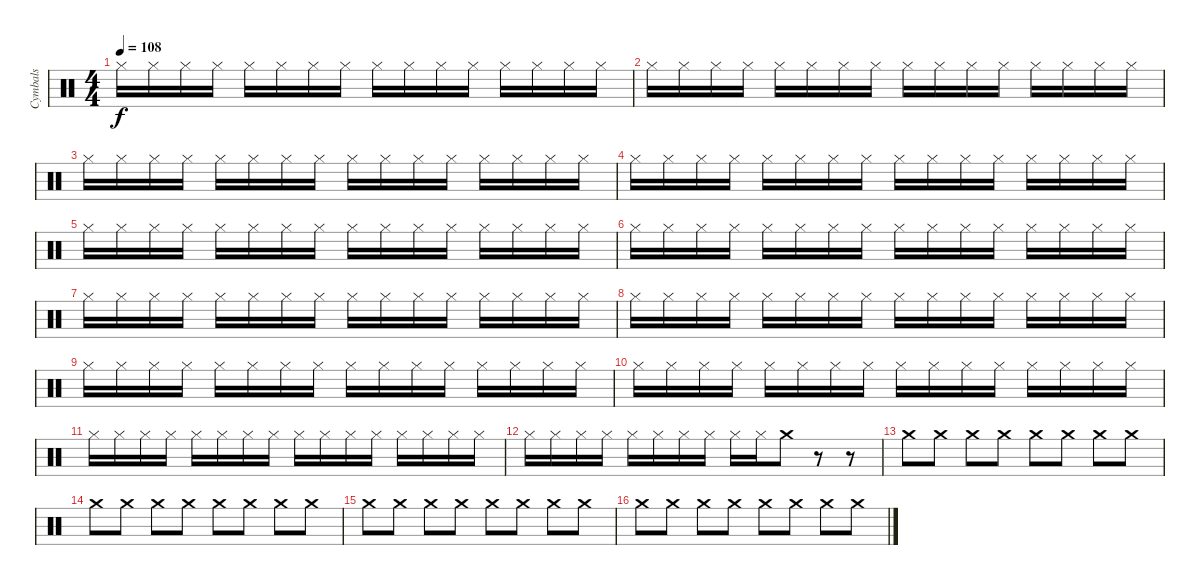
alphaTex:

\track ("Cymbals" "Cymbals") {instrument percussion}
\staff {score}
\articulation defaults
\ts (4 4)
\tempo 108
\clef neutral
\ks c "Hi-Hat (closed)".16{dy f} "Hi-Hat (closed)".16 "Hi-Hat (closed)".16 "Hi-Hat (closed)".16 "Hi-Hat (closed)".16 "Hi-Hat (closed)".16 "Hi-Hat (closed)".16 "Hi-Hat (closed)".16 "Hi-Hat (closed)".16 "Hi-Hat (closed)".16 "Hi-Hat (closed)".16 "Hi-Hat (closed)".16 "Hi-Hat (closed)".16 "Hi-Hat (closed)".16 "Hi-Hat (closed)".16 "Hi-Hat (closed)".16
|
"Hi-Hat (closed)".16 "Hi-Hat (closed)".16 "Hi-Hat (closed)".16 "Hi-Hat (closed)".16 "Hi-Hat (closed)".16 "Hi-Hat (closed)".16 "Hi-Hat (closed)".16 "Hi-Hat (closed)".16 "Hi-Hat (closed)".16 "Hi-Hat (closed)".16 "Hi-Hat (closed)".16 "Hi-Hat (closed)".16 "Hi-Hat (closed)".16 "Hi-Hat (closed)".16 "Hi-Hat (closed)".16 "Hi-Hat (closed)".16 |
"Hi-Hat (closed)".16 "Hi-Hat (closed)".16 "Hi-Hat (closed)".16 "Hi-Hat (closed)".16 "Hi-Hat (closed)".16 "Hi-Hat (closed)".16 "Hi-Hat (closed)".16 "Hi-Hat (closed)".16 "Hi-Hat (closed)".16 "Hi-Hat (closed)".16 "Hi-Hat (closed)".16 "Hi-Hat (closed)".16 "Hi-Hat (closed)".16 "Hi-Hat (closed)".16 "Hi-Hat (closed)".16 "Hi-Hat (closed)".16 |
"Hi-Hat (closed)".16 "Hi-Hat (closed)".16 "Hi-Hat (closed)".16 "Hi-Hat (closed)".16 "Hi-Hat (closed)".16 "Hi-Hat (closed)".16 "Hi-Hat (closed)".16 "Hi-Hat (closed)".16 "Hi-Hat (closed)".16 "Hi-Hat (closed)".16 "Hi-Hat (closed)".16 "Hi-Hat (closed)".16 "Hi-Hat (closed)".16 "Hi-Hat (closed)".16 "Hi-Hat (closed)".16 "Hi-Hat (closed)".16 |
"Hi-Hat (closed)".16 "Hi-Hat (closed)".16 "Hi-Hat (closed)".16 "Hi-Hat (closed)".16 "Hi-Hat (closed)".16 "Hi-Hat (closed)".16 "Hi-Hat (closed)".16 "Hi-Hat (closed)".16 "Hi-Hat (closed)".16 "Hi-Hat (closed)".16 "Hi-Hat (closed)".16 "Hi-Hat (closed)".16 "Hi-Hat (closed)".16 "Hi-Hat (closed)".16 "Hi-Hat (closed)".16 "Hi-Hat (closed)".16 |
"Hi-Hat (closed)".16 "Hi-Hat (closed)".16 "Hi-Hat (closed)".16 "Hi-Hat (closed)".16 "Hi-Hat (closed)".16 "Hi-Hat (closed)".16 "Hi-Hat (closed)".16 "Hi-Hat (closed)".16 "Hi-Hat (closed)".16 "Hi-Hat (closed)".16 "Hi-Hat (closed)".16 "Hi-Hat (closed)".16 "Hi-Hat (closed)".16 "Hi-Hat (closed)".16 "Hi-Hat (closed)".16 "Hi-Hat (closed)".16 |
"Hi-Hat (closed)".16 "Hi-Hat (closed)".16 "Hi-Hat (closed)".16 "Hi-Hat (closed)".16 "Hi-Hat (closed)".16 "Hi-Hat (closed)".16 "Hi-Hat (closed)".16 "Hi-Hat (closed)".16 "Hi-Hat (closed)".16 "Hi-Hat (closed)".16 "Hi-Hat (closed)".16 "Hi-Hat (closed)".16 "Hi-Hat (closed)".16 "Hi-Hat (closed)".16 "Hi-Hat (closed)".16 "Hi-Hat (closed)".16 |
"Hi-Hat (closed)".16 "Hi-Hat (closed)".16 "Hi-Hat (closed)".16 "Hi-Hat (closed)".16 "Hi-Hat (closed)".16 "Hi-Hat (closed)".16 "Hi-Hat (closed)".16 "Hi-Hat (closed)".16 "Hi-Hat (closed)".16 "Hi-Hat (closed)".16 "Hi-Hat (closed)".16 "Hi-Hat (closed)".16 "Hi-Hat (closed)".16 "Hi-Hat (closed)".16 "Hi-Hat (closed)".16 "Hi-Hat (closed)".16 |
"Hi-Hat (closed)".16 "Hi-Hat (closed)".16 "Hi-Hat (closed)".16 "Hi-Hat (closed)".16 "Hi-Hat (closed)".16 "Hi-Hat (closed)".16 "Hi-Hat (closed)".16 "Hi-Hat (closed)".16 "Hi-Hat (closed)".16 "Hi-Hat (closed)".16 "Hi-Hat (closed)".16 "Hi-Hat (closed)".16 "Hi-Hat (closed)".16 "Hi-Hat (closed)".16 "Hi-Hat (closed)".16 "Hi-Hat (closed)".16 |
"Hi-Hat (closed)".16 "Hi-Hat (closed)".16 "Hi-Hat (closed)".16 "Hi-Hat (closed)".16 "Hi-Hat (closed)".16 "Hi-Hat (closed)".16 "Hi-Hat (closed)".16 "Hi-Hat (closed)".16 "Hi-Hat (closed)".16 "Hi-Hat (closed)".16 "Hi-Hat (closed)".16 "Hi-Hat (closed)".16 "Hi-Hat (closed)".16 "Hi-Hat (closed)".16 "Hi-Hat (closed)".16 "Hi-Hat (closed)".16 |
"Hi-Hat (closed)".16 "Hi-Hat (closed)".16 "Hi-Hat (closed)".16 "Hi-Hat (closed)".16 "Hi-Hat (closed)".16 "Hi-Hat (closed)".16 "Hi-Hat (closed)".16 "Hi-Hat (closed)".16 "Hi-Hat (closed)".16 "Hi-Hat (closed)".16 "Hi-Hat (closed)".16 "Hi-Hat (closed)".16 "Hi-Hat (closed)".16 "Hi-Hat (closed)".16 "Hi-Hat (closed)".16 "Hi-Hat (closed)".16 |
"Hi-Hat (closed)".16 "Hi-Hat (closed)".16 "Hi-Hat (closed)".16 "Hi-Hat (closed)".16 "Hi-Hat (closed)".16 "Hi-Hat (closed)".16 "Hi-Hat (closed)".16 "Hi-Hat (closed)".16 "Hi-Hat (closed)".16 "Hi-Hat (closed)".16 "Crash medium (hit)".8 r.8 r.8 |
"Crash medium (hit)".8 "Crash medium (hit)".8 "Crash medium (hit)".8 "Crash medium (hit)".8 "Crash medium (hit)".8 "Crash medium (hit)".8 "Crash medium (hit)".8 "Crash medium (hit)".8 |
"Crash medium (hit)".8 "Crash medium (hit)".8 "Crash medium (hit)".8 "Crash medium (hit)".8 "Crash medium (hit)".8 "Crash medium (hit)".8 "Crash medium (hit)".8 "Crash medium (hit)".8 |
"Crash medium (hit)".8 "Crash medium (hit)".8 "Crash medium (hit)".8 "Crash medium (hit)".8 "Crash medium (hit)".8 "Crash medium (hit)".8 "Crash medium (hit)".8 "Crash medium (hit)".8 |
"Crash medium (hit)".8 "Crash medium (hit)".8 "Crash medium (hit)".8 "Crash medium (hit)".8 "Crash medium (hit)".8 "Crash medium (hit)".8 "Crash medium (hit)".8 "Crash medium (hit)".8
